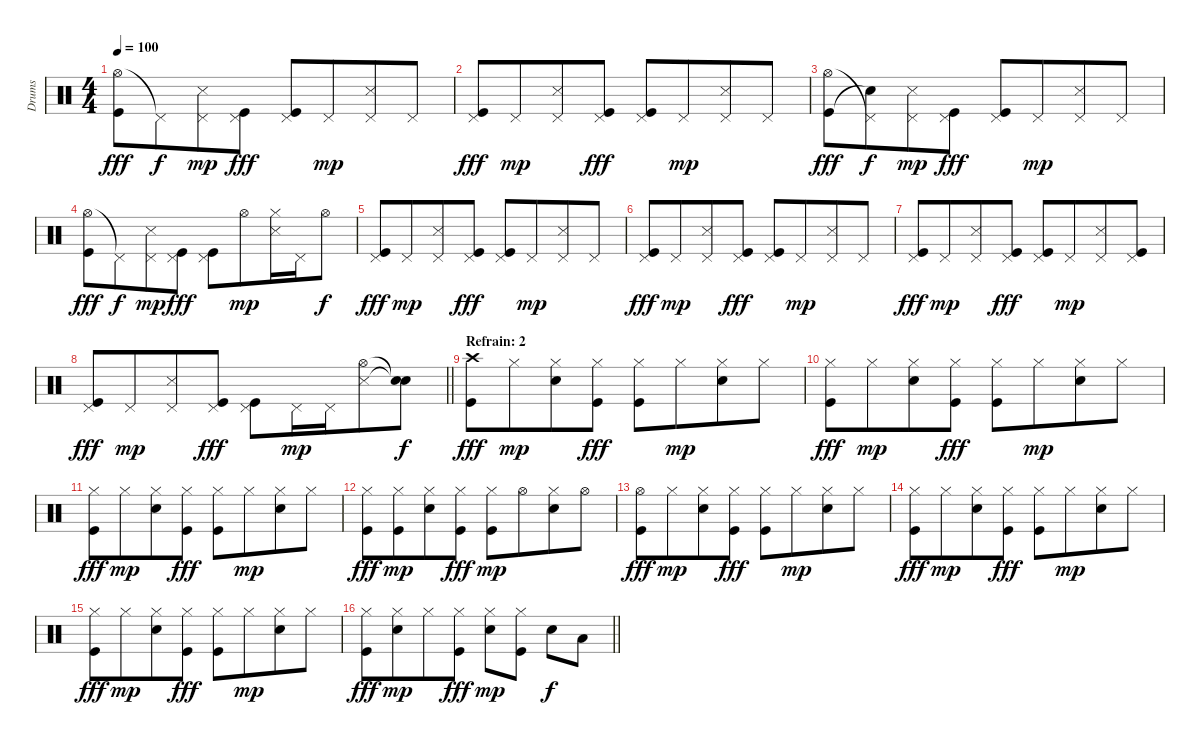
\track ("Drums" "Drums") {instrument percussion}
\staff {score}
\articulation defaults
\ts (4 4)
\tempo 100
\clef neutral
\ks c
("Hi-Hat (open)" "Kick (hit)").8{dy fff} "Pedal Hi-Hat (hit)"{t}.8{dy f beam merge} ("Pedal Hi-Hat (hit)" "Snare (side stick) 3").8{dy mp} ("Pedal Hi-Hat (hit)" "Kick (hit)").8{dy fff} ("Pedal Hi-Hat (hit)" "Kick (hit)").8 "Pedal Hi-Hat (hit)".8{dy mp beam merge} ("Pedal Hi-Hat (hit)" "Snare (side stick) 3").8 "Pedal Hi-Hat (hit)".8 |
("Pedal Hi-Hat (hit)" "Kick (hit)").8{dy fff} "Pedal Hi-Hat (hit)".8{dy mp beam merge} ("Pedal Hi-Hat (hit)" "Snare (side stick) 3").8 ("Pedal Hi-Hat (hit)" "Kick (hit)").8{dy fff} ("Pedal Hi-Hat (hit)" "Kick (hit)").8 "Pedal Hi-Hat (hit)".8{dy mp beam merge} ("Pedal Hi-Hat (hit)" "Snare (side stick) 3").8 "Pedal Hi-Hat (hit)".8 |
("Hi-Hat (open)" "Kick (hit)").8{dy fff} ("Pedal Hi-Hat (hit)"{t} "Snare (hit)"{t}).8{dy f beam merge} ("Pedal Hi-Hat (hit)" "Snare (side stick) 3").8{dy mp} ("Pedal Hi-Hat (hit)" "Kick (hit)").8{dy fff} ("Pedal Hi-Hat (hit)" "Kick (hit)").8 "Pedal Hi-Hat (hit)".8{dy mp beam merge} ("Pedal Hi-Hat (hit)" "Snare (side stick) 3").8 "Pedal Hi-Hat (hit)".8 |
("Hi-Hat (open)" "Kick (hit)").8{dy fff} "Pedal Hi-Hat (hit)"{t}.8{dy f beam merge} ("Pedal Hi-Hat (hit)" "Snare (side stick) 3").8{dy mp} ("Pedal Hi-Hat (hit)" "Kick (hit)").8{dy fff} ("Pedal Hi-Hat (hit)" "Kick (hit)").8 "Hi-Hat (open)".8{dy mp beam merge} ("Hi-Hat (closed)" "Snare (side stick) 3").16 "Pedal Hi-Hat (hit)".16 "Hi-Hat (open)".8{dy f} |
("Pedal Hi-Hat (hit)" "Kick (hit)").8{dy fff} "Pedal Hi-Hat (hit)".8{dy mp beam merge} ("Pedal Hi-Hat (hit)" "Snare (side stick) 3").8 ("Pedal Hi-Hat (hit)" "Kick (hit)").8{dy fff} ("Pedal Hi-Hat (hit)" "Kick (hit)").8 "Pedal Hi-Hat (hit)".8{dy mp beam merge} ("Pedal Hi-Hat (hit)" "Snare (side stick) 3").8 "Pedal Hi-Hat (hit)".8 |
("Pedal Hi-Hat (hit)" "Kick (hit)").8{dy fff} "Pedal Hi-Hat (hit)".8{dy mp beam merge} ("Pedal Hi-Hat (hit)" "Snare (side stick) 3").8 ("Pedal Hi-Hat (hit)" "Kick (hit)").8{dy fff} ("Pedal Hi-Hat (hit)" "Kick (hit)").8 "Pedal Hi-Hat (hit)".8{dy mp beam merge} ("Pedal Hi-Hat (hit)" "Snare (side stick) 3").8 "Pedal Hi-Hat (hit)".8 |
("Pedal Hi-Hat (hit)" "Kick (hit)").8{dy fff} "Pedal Hi-Hat (hit)".8{dy mp beam merge} ("Pedal Hi-Hat (hit)" "Snare (side stick) 3").8 ("Pedal Hi-Hat (hit)" "Kick (hit)").8{dy fff} ("Pedal Hi-Hat (hit)" "Kick (hit)").8 "Pedal Hi-Hat (hit)".8{dy mp beam merge} ("Pedal Hi-Hat (hit)" "Snare (side stick) 3").8 ("Pedal Hi-Hat (hit)" "Kick (hit)").8 |
\barLineRight lightlight
("Pedal Hi-Hat (hit)" "Kick (hit)").8{dy fff} "Pedal Hi-Hat (hit)".8{dy mp beam merge} ("Pedal Hi-Hat (hit)" "Snare (side stick) 3").8 ("Pedal Hi-Hat (hit)" "Kick (hit)").8{dy fff} ("Pedal Hi-Hat (hit)" "Kick (hit)").8 "Pedal Hi-Hat (hit)".16{dy mp} "Pedal Hi-Hat (hit)".16{beam merge} ("Hi-Hat (open)" "Snare (side stick) 3").8 ("Snare (hit)"{t} "Snare (hit)"{t}).8{dy f} |
\section ("" "Refrain: 2")
("Crash high (hit)" "Kick (hit)").8{dy fff} "Hi-Hat (closed)".8{dy mp beam merge} ("Hi-Hat (closed)" "Snare (hit) 2").8 ("Hi-Hat (closed)" "Kick (hit)").8{dy fff} ("Hi-Hat (closed)" "Kick (hit)").8 "Hi-Hat (closed)".8{dy mp beam merge} ("Hi-Hat (closed)" "Snare (hit) 2").8 "Hi-Hat (closed)".8 |
("Hi-Hat (closed)" "Kick (hit)").8{dy fff} "Hi-Hat (closed)".8{dy mp beam merge} ("Hi-Hat (closed)" "Snare (hit) 2").8 ("Hi-Hat (closed)" "Kick (hit)").8{dy fff} ("Hi-Hat (closed)" "Kick (hit)").8 "Hi-Hat (closed)".8{dy mp beam merge} ("Hi-Hat (closed)" "Snare (hit) 2").8 "Hi-Hat (closed)".8 |
("Hi-Hat (closed)" "Kick (hit)").8{dy fff} "Hi-Hat (closed)".8{dy mp beam merge} ("Hi-Hat (closed)" "Snare (hit) 2").8 ("Hi-Hat (closed)" "Kick (hit)").8{dy fff} ("Hi-Hat (closed)" "Kick (hit)").8 "Hi-Hat (closed)".8{dy mp beam merge} ("Hi-Hat (closed)" "Snare (hit) 2").8 "Hi-Hat (closed)".8 |
("Hi-Hat (closed)" "Kick (hit)").8{dy fff} ("Hi-Hat (closed)" "Kick (hit)").8{dy mp beam merge} ("Hi-Hat (closed)" "Snare (hit) 2").8 ("Hi-Hat (closed)" "Kick (hit)").8{dy fff} ("Hi-Hat (closed)" "Kick (hit)").8{dy mp} "Hi-Hat (open)".8{beam merge} ("Hi-Hat (closed)" "Snare (hit) 2").8 "Hi-Hat (open)".8 |
("Hi-Hat (open)" "Kick (hit)").8{dy fff} "Hi-Hat (closed)".8{dy mp beam merge} ("Hi-Hat (closed)" "Snare (hit) 2").8 ("Hi-Hat (closed)" "Kick (hit)").8{dy fff} ("Hi-Hat (closed)" "Kick (hit)").8 "Hi-Hat (closed)".8{dy mp beam merge} ("Hi-Hat (closed)" "Snare (hit) 2").8 "Hi-Hat (closed)".8 |
("Hi-Hat (closed)" "Kick (hit)").8{dy fff} "Hi-Hat (closed)".8{dy mp beam merge} ("Hi-Hat (closed)" "Snare (hit) 2").8 ("Hi-Hat (closed)" "Kick (hit)").8{dy fff} ("Hi-Hat (closed)" "Kick (hit)").8 "Hi-Hat (closed)".8{dy mp beam merge} ("Hi-Hat (closed)" "Snare (hit) 2").8 "Hi-Hat (closed)".8 |
("Hi-Hat (closed)" "Kick (hit)").8{dy fff} "Hi-Hat (closed)".8{dy mp beam merge} ("Hi-Hat (closed)" "Snare (hit) 2").8 ("Hi-Hat (closed)" "Kick (hit)").8{dy fff} ("Hi-Hat (closed)" "Kick (hit)").8 "Hi-Hat (closed)".8{dy mp beam merge} ("Hi-Hat (closed)" "Snare (hit) 2").8 "Hi-Hat (closed)".8 |
\barLineRight lightlight
("Hi-Hat (closed)" "Kick (hit)").8{dy fff} ("Hi-Hat (closed)" "Snare (hit) 2").8{dy mp beam merge} "Hi-Hat (closed)".8 ("Hi-Hat (closed)" "Kick (hit)").8{dy fff} ("Hi-Hat (closed)" "Snare (hit) 2").8{dy mp} ("Hi-Hat (closed)" "Kick (hit)").8 "Snare (hit) 2".8{dy f} "Low Tom (hit)".8
